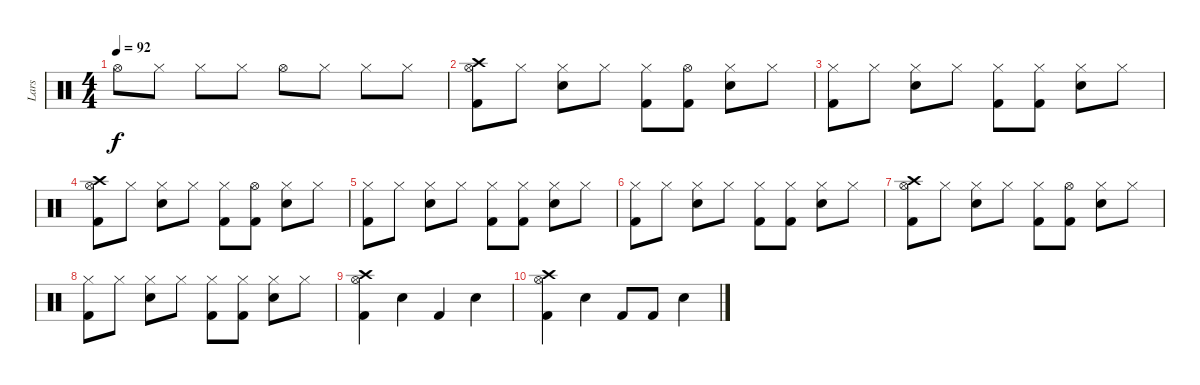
\track ("Lars" "Lars") {instrument percussion}
\staff {score}
\articulation defaults
\ts (4 4)
\tempo 92
\clef neutral
\ks c "Hi-Hat (open)".8{dy f} "Hi-Hat (closed)".8 "Hi-Hat (closed)".8 "Hi-Hat (closed)".8 "Hi-Hat (open)".8 "Hi-Hat (closed)".8 "Hi-Hat (closed)".8 "Hi-Hat (closed)".8
|
("Hi-Hat (open)" "Kick (hit) 2" "Crash high (hit)").8 "Hi-Hat (closed)".8 ("Hi-Hat (closed)" "Snare (hit) 2").8 "Hi-Hat (closed)".8 ("Hi-Hat (closed)" "Kick (hit) 2").8 ("Hi-Hat (open)" "Kick (hit) 2").8 ("Hi-Hat (closed)" "Snare (hit) 2").8 "Hi-Hat (closed)".8 |
("Hi-Hat (closed)" "Kick (hit) 2").8 "Hi-Hat (closed)".8 ("Hi-Hat (closed)" "Snare (hit) 2").8 "Hi-Hat (closed)".8 ("Hi-Hat (closed)" "Kick (hit) 2").8 ("Hi-Hat (closed)" "Kick (hit) 2").8 ("Hi-Hat (closed)" "Snare (hit) 2").8 "Hi-Hat (closed)".8 |
("Hi-Hat (open)" "Kick (hit) 2" "Crash high (hit)").8 "Hi-Hat (closed)".8 ("Hi-Hat (closed)" "Snare (hit) 2").8 "Hi-Hat (closed)".8 ("Hi-Hat (closed)" "Kick (hit) 2").8 ("Hi-Hat (open)" "Kick (hit) 2").8 ("Hi-Hat (closed)" "Snare (hit) 2").8 "Hi-Hat (closed)".8 |
("Hi-Hat (closed)" "Kick (hit) 2").8 "Hi-Hat (closed)".8 ("Hi-Hat (closed)" "Snare (hit) 2").8 "Hi-Hat (closed)".8 ("Hi-Hat (closed)" "Kick (hit) 2").8 ("Hi-Hat (closed)" "Kick (hit) 2").8 ("Hi-Hat (closed)" "Snare (hit) 2").8 "Hi-Hat (closed)".8 |
("Hi-Hat (closed)" "Kick (hit) 2").8 "Hi-Hat (closed)".8 ("Hi-Hat (closed)" "Snare (hit) 2").8 "Hi-Hat (closed)".8 ("Hi-Hat (closed)" "Kick (hit) 2").8 ("Hi-Hat (closed)" "Kick (hit) 2").8 ("Hi-Hat (closed)" "Snare (hit) 2").8 "Hi-Hat (closed)".8 |
("Hi-Hat (open)" "Kick (hit) 2" "Crash high (hit)").8 "Hi-Hat (closed)".8 ("Hi-Hat (closed)" "Snare (hit) 2").8 "Hi-Hat (closed)".8 ("Hi-Hat (closed)" "Kick (hit) 2").8 ("Hi-Hat (open)" "Kick (hit) 2").8 ("Hi-Hat (closed)" "Snare (hit) 2").8 "Hi-Hat (closed)".8 |
("Hi-Hat (closed)" "Kick (hit) 2").8 "Hi-Hat (closed)".8 ("Hi-Hat (closed)" "Snare (hit) 2").8 "Hi-Hat (closed)".8 ("Hi-Hat (closed)" "Kick (hit) 2").8 ("Hi-Hat (closed)" "Kick (hit) 2").8 ("Hi-Hat (closed)" "Snare (hit) 2").8 "Hi-Hat (closed)".8 |
("Hi-Hat (open)" "Kick (hit) 2" "Crash high (hit)").4 "Snare (hit) 2".4 "Kick (hit) 2".4 "Snare (hit) 2".4 |
("Hi-Hat (open)" "Kick (hit) 2" "Crash high (hit)").4 "Snare (hit) 2".4 "Kick (hit) 2".8 "Kick (hit) 2".8 "Snare (hit) 2".4
